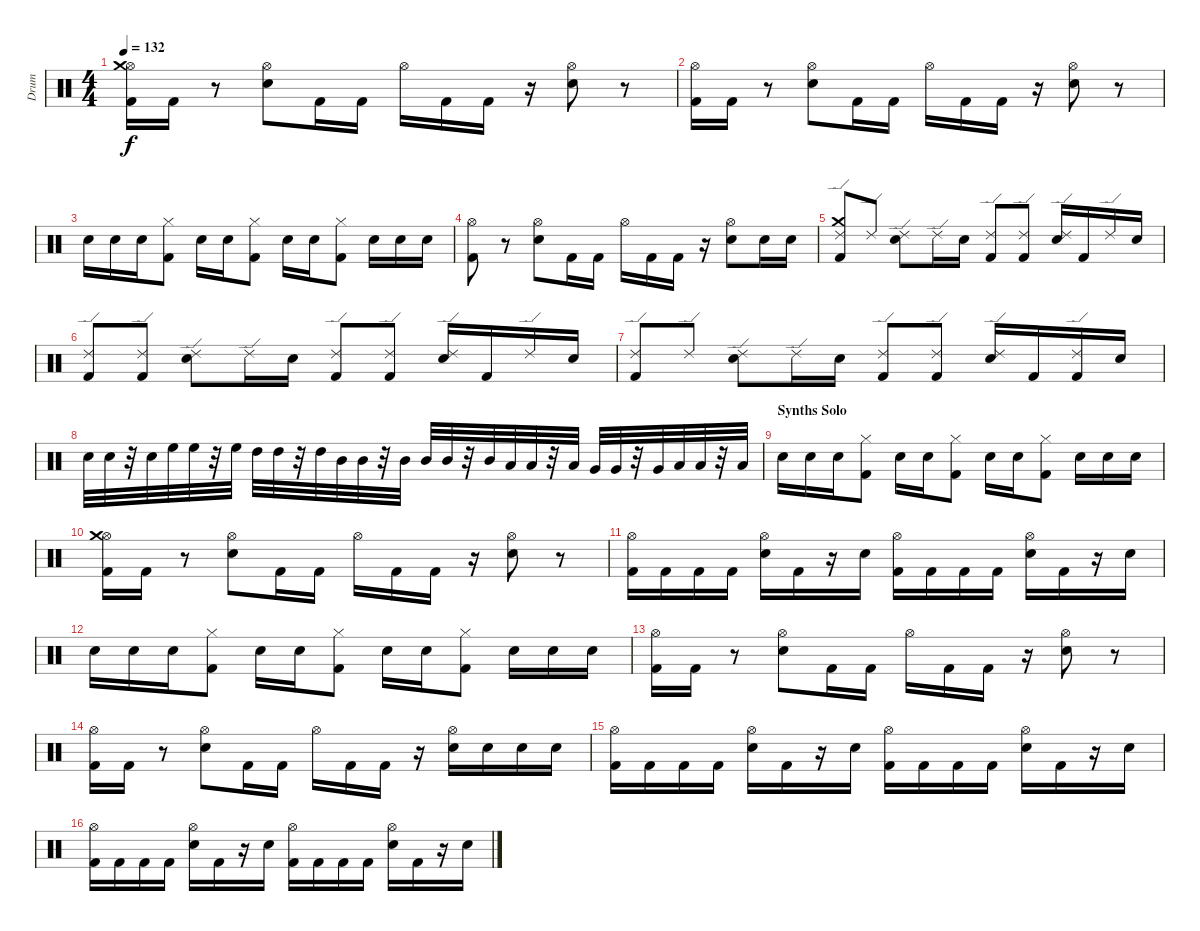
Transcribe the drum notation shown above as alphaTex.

\track (" Drum" " Drum") {instrument percussion}
\staff {score}
\articulation defaults
\ts (4 4)
\tempo 132
\clef neutral
\ks c
("Kick (hit) 2" "Hi-Hat (open)" "Crash medium (hit)").16{dy f} "Kick (hit) 2".16 r.8 ("Electric Snare (hit)" "Hi-Hat (open)").8 "Kick (hit) 2".16 "Kick (hit) 2".16 "Hi-Hat (open)".16 "Kick (hit) 2".16 "Kick (hit) 2".16 r.16 ("Electric Snare (hit)" "Hi-Hat (open)").8 r.8 |
("Kick (hit) 2" "Hi-Hat (open)").16 "Kick (hit) 2".16 r.8 ("Electric Snare (hit)" "Hi-Hat (open)").8 "Kick (hit) 2".16 "Kick (hit) 2".16 "Hi-Hat (open)".16 "Kick (hit) 2".16 "Kick (hit) 2".16 r.16 ("Electric Snare (hit)" "Hi-Hat (open)").8 r.8 |
"Electric Snare (hit)".16 "Electric Snare (hit)".16 "Electric Snare (hit)".16 ("Hi-Hat (closed)" "Kick (hit) 2").8 "Electric Snare (hit)".16 "Electric Snare (hit)".16 ("Hi-Hat (closed)" "Kick (hit) 2").8 "Electric Snare (hit)".16 "Electric Snare (hit)".16 ("Hi-Hat (closed)" "Kick (hit) 2").8 "Electric Snare (hit)".16 "Electric Snare (hit)".16 "Electric Snare (hit)".16 |
("Kick (hit) 2" "Hi-Hat (open)").8 r.8 ("Electric Snare (hit)" "Hi-Hat (open)").8 "Kick (hit) 2".16 "Kick (hit) 2".16 "Hi-Hat (open)".16 "Kick (hit) 2".16 "Kick (hit) 2".16 r.16 ("Electric Snare (hit)" "Hi-Hat (open)").8 "Electric Snare (hit)".16 "Electric Snare (hit)".16 |
("Crash medium (hit)" "Kick (hit) 2" "Ride (edge) 2").8 "Ride (edge) 2".8 ("Ride (edge) 2" "Electric Snare (hit)").8 "Ride (edge) 2".16 "Electric Snare (hit)".16 ("Kick (hit) 2" "Ride (edge) 2").8 ("Kick (hit) 2" "Ride (edge) 2").8 ("Ride (edge) 2" "Electric Snare (hit)").16 "Kick (hit) 2".16 "Ride (edge) 2".16 "Electric Snare (hit)".16 |
("Kick (hit) 2" "Ride (edge) 2").8 ("Kick (hit) 2" "Ride (edge) 2").8 ("Ride (edge) 2" "Electric Snare (hit)").8 "Ride (edge) 2".16 "Electric Snare (hit)".16 ("Kick (hit) 2" "Ride (edge) 2").8 ("Kick (hit) 2" "Ride (edge) 2").8 ("Ride (edge) 2" "Electric Snare (hit)").16 "Kick (hit) 2".16 "Ride (edge) 2".16 "Electric Snare (hit)".16 |
("Kick (hit) 2" "Ride (edge) 2").8 "Ride (edge) 2".8 ("Ride (edge) 2" "Electric Snare (hit)").8 "Ride (edge) 2".16 "Electric Snare (hit)".16 ("Kick (hit) 2" "Ride (edge) 2").8 ("Kick (hit) 2" "Ride (edge) 2").8 ("Ride (edge) 2" "Electric Snare (hit)").16 "Kick (hit) 2".16 ("Kick (hit) 2" "Ride (edge) 2").16 "Electric Snare (hit)".16 |
"Electric Snare (hit)".32 "Electric Snare (hit)".32 r.32 "Electric Snare (hit)".32 "High Floor Tom (hit)".32 "High Floor Tom (hit)".32 r.32 "High Floor Tom (hit)".32 "High Tom (hit)".32 "High Tom (hit)".32 r.32 "High Tom (hit)".32 "Mid Tom (hit)".32 "Mid Tom (hit)".32 r.32 "Mid Tom (hit)".32 "Mid Tom (hit)".32 "Mid Tom (hit)".32 r.32 "Mid Tom (hit)".32 "Low Tom (hit)".32 "Low Tom (hit)".32 r.32 "Low Tom (hit)".32 "Very Low Tom (hit)".32 "Very Low Tom (hit)".32 r.32 "Very Low Tom (hit)".32 "Low Floor Tom (hit)".32 "Low Floor Tom (hit)".32 r.32 "Low Floor Tom (hit)".32 |
\section ("" "Synths Solo")
"Electric Snare (hit)".16 "Electric Snare (hit)".16 "Electric Snare (hit)".16 ("Hi-Hat (closed)" "Kick (hit) 2").8 "Electric Snare (hit)".16 "Electric Snare (hit)".16 ("Hi-Hat (closed)" "Kick (hit) 2").8 "Electric Snare (hit)".16 "Electric Snare (hit)".16 ("Hi-Hat (closed)" "Kick (hit) 2").8 "Electric Snare (hit)".16 "Electric Snare (hit)".16 "Electric Snare (hit)".16 |
("Kick (hit) 2" "Hi-Hat (open)" "Crash medium (hit)").16 "Kick (hit) 2".16 r.8 ("Electric Snare (hit)" "Hi-Hat (open)").8 "Kick (hit) 2".16 "Kick (hit) 2".16 "Hi-Hat (open)".16 "Kick (hit) 2".16 "Kick (hit) 2".16 r.16 ("Electric Snare (hit)" "Hi-Hat (open)").8 r.8 |
("Hi-Hat (open)" "Kick (hit) 2").16 "Kick (hit) 2".16 "Kick (hit) 2".16 "Kick (hit) 2".16 ("Hi-Hat (open)" "Electric Snare (hit)").16 "Kick (hit) 2".16 r.16 "Electric Snare (hit)".16 ("Hi-Hat (open)" "Kick (hit) 2").16 "Kick (hit) 2".16 "Kick (hit) 2".16 "Kick (hit) 2".16 ("Hi-Hat (open)" "Electric Snare (hit)").16 "Kick (hit) 2".16 r.16 "Electric Snare (hit)".16 |
"Electric Snare (hit)".16 "Electric Snare (hit)".16 "Electric Snare (hit)".16 ("Hi-Hat (closed)" "Kick (hit) 2").8 "Electric Snare (hit)".16 "Electric Snare (hit)".16 ("Hi-Hat (closed)" "Kick (hit) 2").8 "Electric Snare (hit)".16 "Electric Snare (hit)".16 ("Hi-Hat (closed)" "Kick (hit) 2").8 "Electric Snare (hit)".16 "Electric Snare (hit)".16 "Electric Snare (hit)".16 |
("Kick (hit) 2" "Hi-Hat (open)").16 "Kick (hit) 2".16 r.8 ("Electric Snare (hit)" "Hi-Hat (open)").8 "Kick (hit) 2".16 "Kick (hit) 2".16 "Hi-Hat (open)".16 "Kick (hit) 2".16 "Kick (hit) 2".16 r.16 ("Electric Snare (hit)" "Hi-Hat (open)").8 r.8 |
("Kick (hit) 2" "Hi-Hat (open)").16 "Kick (hit) 2".16 r.8 ("Electric Snare (hit)" "Hi-Hat (open)").8 "Kick (hit) 2".16 "Kick (hit) 2".16 "Hi-Hat (open)".16 "Kick (hit) 2".16 "Kick (hit) 2".16 r.16 ("Electric Snare (hit)" "Hi-Hat (open)").16 "Electric Snare (hit)".16 "Electric Snare (hit)".16 "Electric Snare (hit)".16 |
("Hi-Hat (open)" "Kick (hit) 2").16 "Kick (hit) 2".16 "Kick (hit) 2".16 "Kick (hit) 2".16 ("Hi-Hat (open)" "Electric Snare (hit)").16 "Kick (hit) 2".16 r.16 "Electric Snare (hit)".16 ("Hi-Hat (open)" "Kick (hit) 2").16 "Kick (hit) 2".16 "Kick (hit) 2".16 "Kick (hit) 2".16 ("Hi-Hat (open)" "Electric Snare (hit)").16 "Kick (hit) 2".16 r.16 "Electric Snare (hit)".16 |
("Hi-Hat (open)" "Kick (hit) 2").16 "Kick (hit) 2".16 "Kick (hit) 2".16 "Kick (hit) 2".16 ("Hi-Hat (open)" "Electric Snare (hit)").16 "Kick (hit) 2".16 r.16 "Electric Snare (hit)".16 ("Hi-Hat (open)" "Kick (hit) 2").16 "Kick (hit) 2".16 "Kick (hit) 2".16 "Kick (hit) 2".16 ("Hi-Hat (open)" "Electric Snare (hit)").16 "Kick (hit) 2".16 r.16 "Electric Snare (hit)".16
